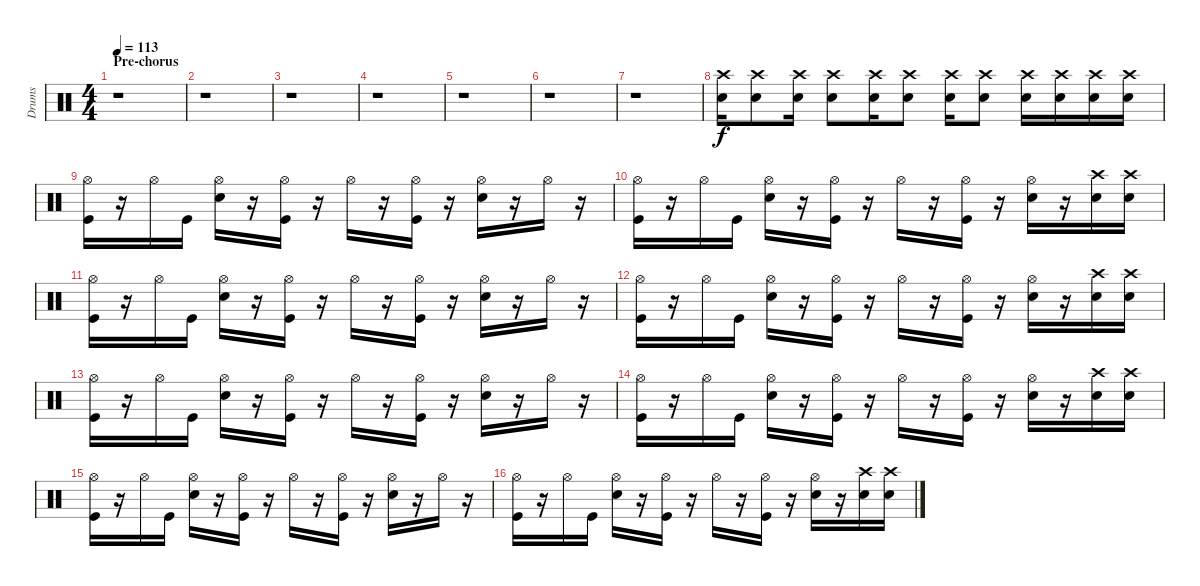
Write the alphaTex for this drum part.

\track ("Drums" "Drums") {instrument percussion}
\staff {score}
\articulation defaults
\ts (4 4)
\section ("" "Pre-chorus")
\tempo 113
\clef neutral
\ks c
r.1{dy f} |
r.1 |
r.1 |
r.1 |
r.1 |
r.1 |
r.1 |
("Crash high (hit)" "Snare (hit) 2").16 ("Crash high (hit)" "Snare (hit) 2").8 ("Crash high (hit)" "Snare (hit) 2").16 ("Crash high (hit)" "Snare (hit) 2").8 ("Crash high (hit)" "Snare (hit) 2").16 ("Crash high (hit)" "Snare (hit) 2").8 ("Crash high (hit)" "Snare (hit) 2").16 ("Crash high (hit)" "Snare (hit) 2").8 ("Crash high (hit)" "Snare (hit) 2").16 ("Crash high (hit)" "Snare (hit) 2").16 ("Crash high (hit)" "Snare (hit) 2").16 ("Crash high (hit)" "Snare (hit) 2").16 |
("Hi-Hat (open)" "Kick (hit)").16 r.16 "Hi-Hat (open)".16 "Kick (hit)".16 ("Hi-Hat (open)" "Snare (hit) 2").16 r.16 ("Hi-Hat (open)" "Kick (hit)").16 r.16 "Hi-Hat (open)".16 r.16 ("Hi-Hat (open)" "Kick (hit)").16 r.16 ("Hi-Hat (open)" "Snare (hit) 2").16 r.16 "Hi-Hat (open)".16 r.16 |
("Hi-Hat (open)" "Kick (hit)").16 r.16 "Hi-Hat (open)".16 "Kick (hit)".16 ("Hi-Hat (open)" "Snare (hit) 2").16 r.16 ("Hi-Hat (open)" "Kick (hit)").16 r.16 "Hi-Hat (open)".16 r.16 ("Hi-Hat (open)" "Kick (hit)").16 r.16 ("Hi-Hat (open)" "Snare (hit) 2").16 r.16 ("Crash high (hit)" "Snare (hit) 2").16 ("Crash high (hit)" "Snare (hit) 2").16 |
("Hi-Hat (open)" "Kick (hit)").16 r.16 "Hi-Hat (open)".16 "Kick (hit)".16 ("Hi-Hat (open)" "Snare (hit) 2").16 r.16 ("Hi-Hat (open)" "Kick (hit)").16 r.16 "Hi-Hat (open)".16 r.16 ("Hi-Hat (open)" "Kick (hit)").16 r.16 ("Hi-Hat (open)" "Snare (hit) 2").16 r.16 "Hi-Hat (open)".16 r.16 |
("Hi-Hat (open)" "Kick (hit)").16 r.16 "Hi-Hat (open)".16 "Kick (hit)".16 ("Hi-Hat (open)" "Snare (hit) 2").16 r.16 ("Hi-Hat (open)" "Kick (hit)").16 r.16 "Hi-Hat (open)".16 r.16 ("Hi-Hat (open)" "Kick (hit)").16 r.16 ("Hi-Hat (open)" "Snare (hit) 2").16 r.16 ("Crash high (hit)" "Snare (hit) 2").16 ("Crash high (hit)" "Snare (hit) 2").16 |
("Hi-Hat (open)" "Kick (hit)").16 r.16 "Hi-Hat (open)".16 "Kick (hit)".16 ("Hi-Hat (open)" "Snare (hit) 2").16 r.16 ("Hi-Hat (open)" "Kick (hit)").16 r.16 "Hi-Hat (open)".16 r.16 ("Hi-Hat (open)" "Kick (hit)").16 r.16 ("Hi-Hat (open)" "Snare (hit) 2").16 r.16 "Hi-Hat (open)".16 r.16 |
("Hi-Hat (open)" "Kick (hit)").16 r.16 "Hi-Hat (open)".16 "Kick (hit)".16 ("Hi-Hat (open)" "Snare (hit) 2").16 r.16 ("Hi-Hat (open)" "Kick (hit)").16 r.16 "Hi-Hat (open)".16 r.16 ("Hi-Hat (open)" "Kick (hit)").16 r.16 ("Hi-Hat (open)" "Snare (hit) 2").16 r.16 ("Crash high (hit)" "Snare (hit) 2").16 ("Crash high (hit)" "Snare (hit) 2").16 |
("Hi-Hat (open)" "Kick (hit)").16 r.16 "Hi-Hat (open)".16 "Kick (hit)".16 ("Hi-Hat (open)" "Snare (hit) 2").16 r.16 ("Hi-Hat (open)" "Kick (hit)").16 r.16 "Hi-Hat (open)".16 r.16 ("Hi-Hat (open)" "Kick (hit)").16 r.16 ("Hi-Hat (open)" "Snare (hit) 2").16 r.16 "Hi-Hat (open)".16 r.16 |
("Hi-Hat (open)" "Kick (hit)").16 r.16 "Hi-Hat (open)".16 "Kick (hit)".16 ("Hi-Hat (open)" "Snare (hit) 2").16 r.16 ("Hi-Hat (open)" "Kick (hit)").16 r.16 "Hi-Hat (open)".16 r.16 ("Hi-Hat (open)" "Kick (hit)").16 r.16 ("Hi-Hat (open)" "Snare (hit) 2").16 r.16 ("Crash high (hit)" "Snare (hit) 2").16 ("Crash high (hit)" "Snare (hit) 2").16
